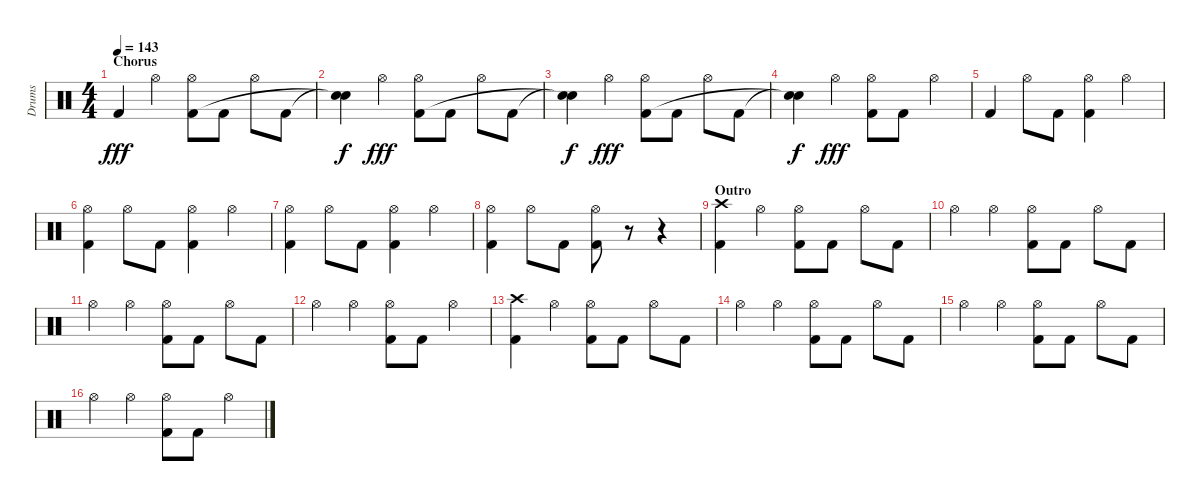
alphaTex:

\track ("Drums" "Drums") {instrument percussion}
\staff {score}
\articulation defaults
\ts (4 4)
\section ("" "Chorus")
\tempo 143
\clef neutral
\ks c "Kick (hit) 2".4{dy fff} "Hi-Hat (open)".4
("Hi-Hat (open)" "Kick (hit) 2").8 "Kick (hit) 2".8 "Hi-Hat (open)".8 "Kick (hit) 2".8 |
("Snare (hit)"{t} "Snare (hit)"{t}).4{dy f} "Hi-Hat (open)".4{dy fff} ("Hi-Hat (open)" "Kick (hit) 2").8 "Kick (hit) 2".8 "Hi-Hat (open)".8 "Kick (hit) 2".8 |
("Snare (hit)"{t} "Snare (hit)"{t}).4{dy f} "Hi-Hat (open)".4{dy fff} ("Hi-Hat (open)" "Kick (hit) 2").8 "Kick (hit) 2".8 "Hi-Hat (open)".8 "Kick (hit) 2".8 |
("Snare (hit)"{t} "Snare (hit)"{t}).4{dy f} "Hi-Hat (open)".4{dy fff} ("Hi-Hat (open)" "Kick (hit) 2").8 "Kick (hit) 2".8 "Hi-Hat (open)".4 |
"Kick (hit) 2".4 "Hi-Hat (open)".8 "Kick (hit) 2".8 ("Hi-Hat (open)" "Kick (hit) 2").4 "Hi-Hat (open)".4 |
("Hi-Hat (open)" "Kick (hit) 2").4 "Hi-Hat (open)".8 "Kick (hit) 2".8 ("Hi-Hat (open)" "Kick (hit) 2").4 "Hi-Hat (open)".4 |
("Hi-Hat (open)" "Kick (hit) 2").4 "Hi-Hat (open)".8 "Kick (hit) 2".8 ("Hi-Hat (open)" "Kick (hit) 2").4 "Hi-Hat (open)".4 |
("Hi-Hat (open)" "Kick (hit) 2").4 "Hi-Hat (open)".8 "Kick (hit) 2".8 ("Hi-Hat (open)" "Kick (hit) 2").8 r.8 r.4 |
\section ("" "Outro")
("Crash high (hit)" "Kick (hit) 2").4 "Hi-Hat (open)".4 ("Hi-Hat (open)" "Kick (hit) 2").8 "Kick (hit) 2".8 "Hi-Hat (open)".8 "Kick (hit) 2".8 |
"Hi-Hat (open)".4 "Hi-Hat (open)".4 ("Hi-Hat (open)" "Kick (hit) 2").8 "Kick (hit) 2".8 "Hi-Hat (open)".8 "Kick (hit) 2".8 |
"Hi-Hat (open)".4 "Hi-Hat (open)".4 ("Hi-Hat (open)" "Kick (hit) 2").8 "Kick (hit) 2".8 "Hi-Hat (open)".8 "Kick (hit) 2".8 |
"Hi-Hat (open)".4 "Hi-Hat (open)".4 ("Hi-Hat (open)" "Kick (hit) 2").8 "Kick (hit) 2".8 "Hi-Hat (open)".4 |
("Crash high (hit)" "Kick (hit) 2").4 "Hi-Hat (open)".4 ("Hi-Hat (open)" "Kick (hit) 2").8 "Kick (hit) 2".8 "Hi-Hat (open)".8 "Kick (hit) 2".8 |
"Hi-Hat (open)".4 "Hi-Hat (open)".4 ("Hi-Hat (open)" "Kick (hit) 2").8 "Kick (hit) 2".8 "Hi-Hat (open)".8 "Kick (hit) 2".8 |
"Hi-Hat (open)".4 "Hi-Hat (open)".4 ("Hi-Hat (open)" "Kick (hit) 2").8 "Kick (hit) 2".8 "Hi-Hat (open)".8 "Kick (hit) 2".8 |
"Hi-Hat (open)".4 "Hi-Hat (open)".4 ("Hi-Hat (open)" "Kick (hit) 2").8 "Kick (hit) 2".8 "Hi-Hat (open)".4
